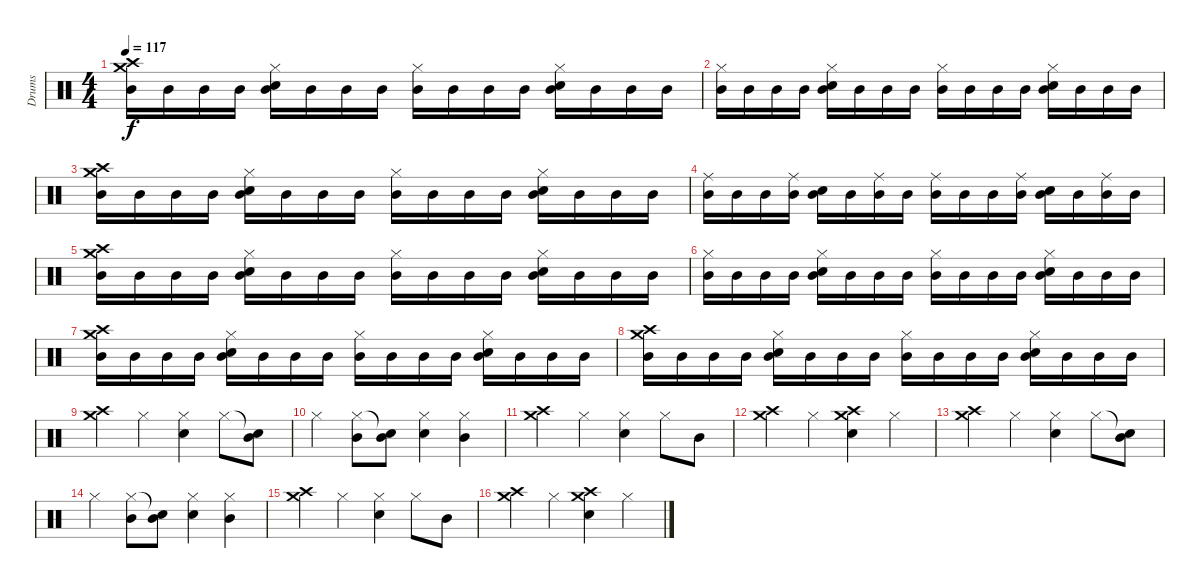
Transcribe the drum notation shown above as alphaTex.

\track ("Drums" "Drums") {instrument percussion}
\staff {score}
\articulation defaults
\ts (4 4)
\tempo 117
\clef neutral
\ks c
("Crash high (hit)" "Crash medium (hit)" "Mid Tom (hit)").16{dy f} "Mid Tom (hit)".16 "Mid Tom (hit)".16 "Mid Tom (hit)".16 ("Hi-Hat (closed)" "Electric Snare (hit)" "Mid Tom (hit)").16 "Mid Tom (hit)".16 "Mid Tom (hit)".16 "Mid Tom (hit)".16 ("Hi-Hat (closed)" "Mid Tom (hit)").16 "Mid Tom (hit)".16 "Mid Tom (hit)".16 "Mid Tom (hit)".16 ("Hi-Hat (closed)" "Electric Snare (hit)" "Mid Tom (hit)").16 "Mid Tom (hit)".16 "Mid Tom (hit)".16 "Mid Tom (hit)".16 |
("Hi-Hat (closed)" "Mid Tom (hit)").16 "Mid Tom (hit)".16 "Mid Tom (hit)".16 "Mid Tom (hit)".16 ("Hi-Hat (closed)" "Electric Snare (hit)" "Mid Tom (hit)").16 "Mid Tom (hit)".16 "Mid Tom (hit)".16 "Mid Tom (hit)".16 ("Hi-Hat (closed)" "Mid Tom (hit)").16 "Mid Tom (hit)".16 "Mid Tom (hit)".16 "Mid Tom (hit)".16 ("Hi-Hat (closed)" "Electric Snare (hit)" "Mid Tom (hit)").16 "Mid Tom (hit)".16 "Mid Tom (hit)".16 "Mid Tom (hit)".16 |
("Crash high (hit)" "Crash medium (hit)" "Mid Tom (hit)").16 "Mid Tom (hit)".16 "Mid Tom (hit)".16 "Mid Tom (hit)".16 ("Hi-Hat (closed)" "Electric Snare (hit)" "Mid Tom (hit)").16 "Mid Tom (hit)".16 "Mid Tom (hit)".16 "Mid Tom (hit)".16 ("Hi-Hat (closed)" "Mid Tom (hit)").16 "Mid Tom (hit)".16 "Mid Tom (hit)".16 "Mid Tom (hit)".16 ("Hi-Hat (closed)" "Electric Snare (hit)" "Mid Tom (hit)").16 "Mid Tom (hit)".16 "Mid Tom (hit)".16 "Mid Tom (hit)".16 |
("Ride (middle)" "Mid Tom (hit)").16 "Mid Tom (hit)".16 "Mid Tom (hit)".16 ("Ride (middle)" "Mid Tom (hit)").16 ("Electric Snare (hit)" "Mid Tom (hit)").16 "Mid Tom (hit)".16 ("Ride (middle)" "Mid Tom (hit)").16 "Mid Tom (hit)".16 ("Ride (middle)" "Mid Tom (hit)").16 "Mid Tom (hit)".16 "Mid Tom (hit)".16 ("Ride (middle)" "Mid Tom (hit)").16 ("Electric Snare (hit)" "Mid Tom (hit)").16 "Mid Tom (hit)".16 ("Ride (middle)" "Mid Tom (hit)").16 "Mid Tom (hit)".16 |
("Crash high (hit)" "Crash medium (hit)" "Mid Tom (hit)").16 "Mid Tom (hit)".16 "Mid Tom (hit)".16 "Mid Tom (hit)".16 ("Hi-Hat (closed)" "Electric Snare (hit)" "Mid Tom (hit)").16 "Mid Tom (hit)".16 "Mid Tom (hit)".16 "Mid Tom (hit)".16 ("Hi-Hat (closed)" "Mid Tom (hit)").16 "Mid Tom (hit)".16 "Mid Tom (hit)".16 "Mid Tom (hit)".16 ("Hi-Hat (closed)" "Electric Snare (hit)" "Mid Tom (hit)").16 "Mid Tom (hit)".16 "Mid Tom (hit)".16 "Mid Tom (hit)".16 |
("Hi-Hat (closed)" "Mid Tom (hit)").16 "Mid Tom (hit)".16 "Mid Tom (hit)".16 "Mid Tom (hit)".16 ("Hi-Hat (closed)" "Electric Snare (hit)" "Mid Tom (hit)").16 "Mid Tom (hit)".16 "Mid Tom (hit)".16 "Mid Tom (hit)".16 ("Hi-Hat (closed)" "Mid Tom (hit)").16 "Mid Tom (hit)".16 "Mid Tom (hit)".16 "Mid Tom (hit)".16 ("Hi-Hat (closed)" "Electric Snare (hit)" "Mid Tom (hit)").16 "Mid Tom (hit)".16 "Mid Tom (hit)".16 "Mid Tom (hit)".16 |
("Crash high (hit)" "Crash medium (hit)" "Mid Tom (hit)").16 "Mid Tom (hit)".16 "Mid Tom (hit)".16 "Mid Tom (hit)".16 ("Hi-Hat (closed)" "Electric Snare (hit)" "Mid Tom (hit)").16 "Mid Tom (hit)".16 "Mid Tom (hit)".16 "Mid Tom (hit)".16 ("Hi-Hat (closed)" "Mid Tom (hit)").16 "Mid Tom (hit)".16 "Mid Tom (hit)".16 "Mid Tom (hit)".16 ("Hi-Hat (closed)" "Electric Snare (hit)" "Mid Tom (hit)").16 "Mid Tom (hit)".16 "Mid Tom (hit)".16 "Mid Tom (hit)".16 |
("Crash high (hit)" "Crash medium (hit)" "Mid Tom (hit)").16 "Mid Tom (hit)".16 "Mid Tom (hit)".16 "Mid Tom (hit)".16 ("Hi-Hat (closed)" "Electric Snare (hit)" "Mid Tom (hit)").16 "Mid Tom (hit)".16 "Mid Tom (hit)".16 "Mid Tom (hit)".16 ("Hi-Hat (closed)" "Mid Tom (hit)").16 "Mid Tom (hit)".16 "Mid Tom (hit)".16 "Mid Tom (hit)".16 ("Hi-Hat (closed)" "Electric Snare (hit)" "Mid Tom (hit)").16 "Mid Tom (hit)".16 "Mid Tom (hit)".16 "Mid Tom (hit)".16 |
("Crash high (hit)" "Crash medium (hit)").4 "Hi-Hat (closed)".4 ("Hi-Hat (closed)" "Electric Snare (hit)").4 "Hi-Hat (closed)".8 ("Snare (hit)"{t} "Mid Tom (hit)").8 |
"Hi-Hat (closed)".4 ("Hi-Hat (closed)" "Mid Tom (hit)").8 ("Snare (hit)"{t} "Mid Tom (hit)").8 ("Hi-Hat (closed)" "Electric Snare (hit)").4 ("Hi-Hat (closed)" "Mid Tom (hit)").4 |
("Crash high (hit)" "Crash medium (hit)").4 "Hi-Hat (closed)".4 ("Hi-Hat (closed)" "Electric Snare (hit)").4 "Hi-Hat (closed)".8 "Mid Tom (hit)".8 |
("Crash high (hit)" "Crash medium (hit)").4 "Hi-Hat (closed)".4 ("Crash high (hit)" "Crash medium (hit)" "Electric Snare (hit)").4 "Hi-Hat (closed)".4 |
("Crash high (hit)" "Crash medium (hit)").4 "Hi-Hat (closed)".4 ("Hi-Hat (closed)" "Electric Snare (hit)").4 "Hi-Hat (closed)".8 ("Snare (hit)"{t} "Mid Tom (hit)").8 |
"Hi-Hat (closed)".4 ("Hi-Hat (closed)" "Mid Tom (hit)").8 ("Snare (hit)"{t} "Mid Tom (hit)").8 ("Hi-Hat (closed)" "Electric Snare (hit)").4 ("Hi-Hat (closed)" "Mid Tom (hit)").4 |
("Crash high (hit)" "Crash medium (hit)").4 "Hi-Hat (closed)".4 ("Hi-Hat (closed)" "Electric Snare (hit)").4 "Hi-Hat (closed)".8 "Mid Tom (hit)".8 |
("Crash high (hit)" "Crash medium (hit)").4 "Hi-Hat (closed)".4 ("Crash high (hit)" "Crash medium (hit)" "Electric Snare (hit)").4 "Hi-Hat (closed)".4
